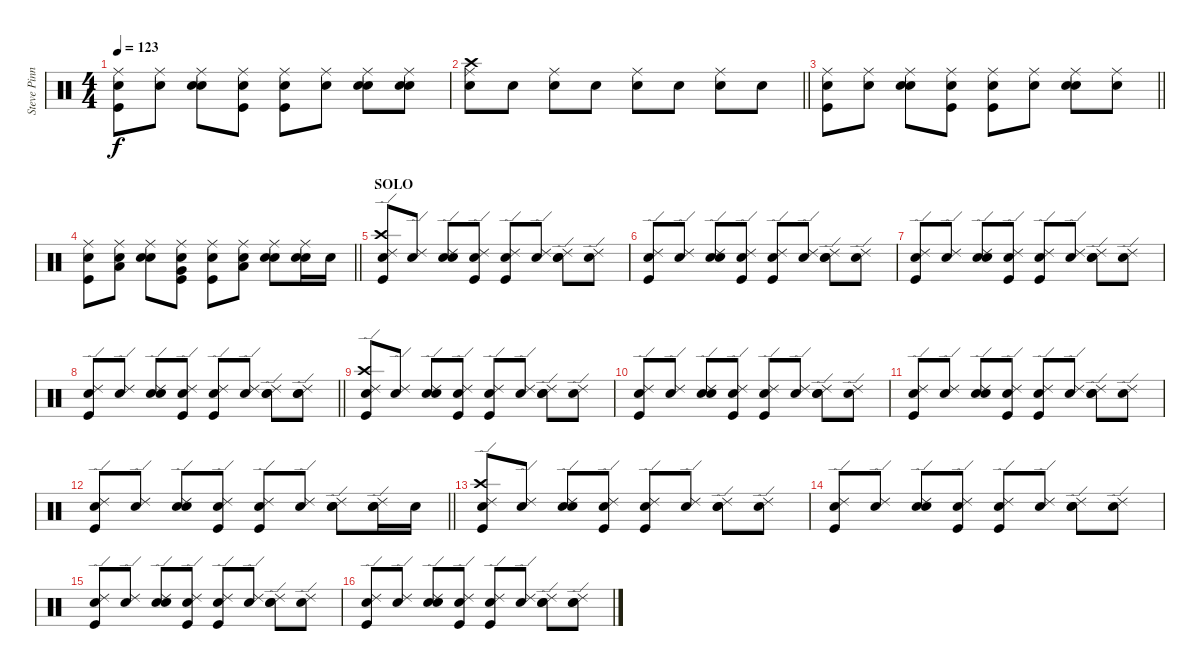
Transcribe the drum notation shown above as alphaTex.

\track ("Steve Pinnell - Drums" "Steve Pinn") {instrument percussion}
\staff {score}
\articulation defaults
\ts (4 4)
\tempo 123
\clef neutral
\ks c
("Kick (hit)" "Ride (middle)" "Snare (hit)").8{dy f} ("Ride (middle)" "Snare (hit)").8 ("Metronome (bell)" "Ride (middle)" "Snare (hit)").8 ("Kick (hit)" "Ride (middle)" "Snare (hit)").8 ("Kick (hit)" "Ride (middle)" "Snare (hit)").8 ("Ride (middle)" "Snare (hit)").8 ("Metronome (bell)" "Ride (middle)" "Snare (hit)").8 ("Metronome (bell)" "Ride (middle)" "Snare (hit)").8 |
\barLineRight lightlight
("Crash high (hit)" "Ride (middle)" "Snare (hit)").8 "Snare (hit)".8 ("Ride (middle)" "Snare (hit)").8 "Snare (hit)".8 ("Ride (middle)" "Snare (hit)").8 "Snare (hit)".8 ("Ride (middle)" "Snare (hit)").8 "Snare (hit)".8 |
\barLineRight lightlight
("Kick (hit)" "Ride (middle)" "Snare (hit)").8 ("Ride (middle)" "Snare (hit)").8 ("Metronome (bell)" "Ride (middle)" "Snare (hit)").8 ("Kick (hit)" "Ride (middle)" "Snare (hit)").8 ("Kick (hit)" "Ride (middle)" "Snare (hit)").8 ("Ride (middle)" "Snare (hit)").8 ("Metronome (bell)" "Ride (middle)" "Snare (hit)").8 ("Ride (middle)" "Snare (hit)").8 |
\barLineRight lightlight
("Kick (hit)" "Ride (middle)" "Snare (hit)").8 ("Low Floor Tom (hit)" "Ride (middle)" "Snare (hit)").8 ("Metronome (bell)" "Ride (middle)" "Snare (hit)").8 ("Very Low Tom (hit)" "Kick (hit)" "Ride (middle)" "Snare (hit)").8 ("Kick (hit)" "Ride (middle)" "Snare (hit)").8 ("Low Tom (hit)" "Ride (middle)" "Snare (hit)").8 ("Metronome (bell)" "Ride (middle)" "Snare (hit)").8 ("Metronome (bell)" "Ride (middle)" "Snare (hit)").16 "Metronome (bell)".16 |
\section ("" "SOLO")
("Crash high (hit)" "Kick (hit)" "Ride (edge) 2" "Snare (hit)").8 ("Ride (edge) 2" "Snare (hit)").8 ("Metronome (bell)" "Ride (edge) 2" "Snare (hit)").8 ("Kick (hit)" "Ride (edge) 2" "Snare (hit)").8 ("Kick (hit)" "Ride (edge) 2" "Snare (hit)").8 ("Ride (edge) 2" "Snare (hit)").8 ("Metronome (bell)" "Ride (edge) 2" "Snare (hit)").8 ("Ride (edge) 2" "Snare (hit)").8 |
("Kick (hit)" "Ride (edge) 2" "Snare (hit)").8 ("Ride (edge) 2" "Snare (hit)").8 ("Metronome (bell)" "Ride (edge) 2" "Snare (hit)").8 ("Kick (hit)" "Ride (edge) 2" "Snare (hit)").8 ("Kick (hit)" "Ride (edge) 2" "Snare (hit)").8 ("Ride (edge) 2" "Snare (hit)").8 ("Metronome (bell)" "Ride (edge) 2" "Snare (hit)").8 ("Ride (edge) 2" "Snare (hit)").8 |
("Kick (hit)" "Ride (edge) 2" "Snare (hit)").8 ("Ride (edge) 2" "Snare (hit)").8 ("Metronome (bell)" "Ride (edge) 2" "Snare (hit)").8 ("Kick (hit)" "Ride (edge) 2" "Snare (hit)").8 ("Kick (hit)" "Ride (edge) 2" "Snare (hit)").8 ("Ride (edge) 2" "Snare (hit)").8 ("Metronome (bell)" "Ride (edge) 2" "Snare (hit)").8 ("Ride (edge) 2" "Snare (hit)").8 |
\barLineRight lightlight
("Kick (hit)" "Ride (edge) 2" "Snare (hit)").8 ("Ride (edge) 2" "Snare (hit)").8 ("Metronome (bell)" "Ride (edge) 2" "Snare (hit)").8 ("Kick (hit)" "Ride (edge) 2" "Snare (hit)").8 ("Kick (hit)" "Ride (edge) 2" "Snare (hit)").8 ("Ride (edge) 2" "Snare (hit)").8 ("Metronome (bell)" "Ride (edge) 2" "Snare (hit)").8 ("Metronome (bell)" "Ride (edge) 2" "Snare (hit)").8 |
("Crash high (hit)" "Kick (hit)" "Ride (edge) 2" "Snare (hit)").8 ("Ride (edge) 2" "Snare (hit)").8 ("Metronome (bell)" "Ride (edge) 2" "Snare (hit)").8 ("Kick (hit)" "Ride (edge) 2" "Snare (hit)").8 ("Kick (hit)" "Ride (edge) 2" "Snare (hit)").8 ("Ride (edge) 2" "Snare (hit)").8 ("Metronome (bell)" "Ride (edge) 2" "Snare (hit)").8 ("Ride (edge) 2" "Snare (hit)").8 |
("Kick (hit)" "Ride (edge) 2" "Snare (hit)").8 ("Ride (edge) 2" "Snare (hit)").8 ("Metronome (bell)" "Ride (edge) 2" "Snare (hit)").8 ("Kick (hit)" "Ride (edge) 2" "Snare (hit)").8 ("Kick (hit)" "Ride (edge) 2" "Snare (hit)").8 ("Ride (edge) 2" "Snare (hit)").8 ("Metronome (bell)" "Ride (edge) 2" "Snare (hit)").8 ("Ride (edge) 2" "Snare (hit)").8 |
("Kick (hit)" "Ride (edge) 2" "Snare (hit)").8 ("Ride (edge) 2" "Snare (hit)").8 ("Metronome (bell)" "Ride (edge) 2" "Snare (hit)").8 ("Kick (hit)" "Ride (edge) 2" "Snare (hit)").8 ("Kick (hit)" "Ride (edge) 2" "Snare (hit)").8 ("Ride (edge) 2" "Snare (hit)").8 ("Metronome (bell)" "Ride (edge) 2" "Snare (hit)").8 ("Ride (edge) 2" "Snare (hit)").8 |
\barLineRight lightlight
("Kick (hit)" "Ride (edge) 2" "Snare (hit)").8 ("Ride (edge) 2" "Snare (hit)").8 ("Metronome (bell)" "Ride (edge) 2" "Snare (hit)").8 ("Kick (hit)" "Ride (edge) 2" "Snare (hit)").8 ("Kick (hit)" "Ride (edge) 2" "Snare (hit)").8 ("Ride (edge) 2" "Snare (hit)").8 ("Metronome (bell)" "Ride (edge) 2" "Snare (hit)").8 ("Metronome (bell)" "Ride (edge) 2" "Snare (hit)").16 "Metronome (bell)".16 |
("Crash high (hit)" "Kick (hit)" "Ride (edge) 2" "Snare (hit)").8 ("Ride (edge) 2" "Snare (hit)").8 ("Metronome (bell)" "Ride (edge) 2" "Snare (hit)").8 ("Kick (hit)" "Ride (edge) 2" "Snare (hit)").8 ("Kick (hit)" "Ride (edge) 2" "Snare (hit)").8 ("Ride (edge) 2" "Snare (hit)").8 ("Metronome (bell)" "Ride (edge) 2" "Snare (hit)").8 ("Ride (edge) 2" "Snare (hit)").8 |
("Kick (hit)" "Ride (edge) 2" "Snare (hit)").8 ("Ride (edge) 2" "Snare (hit)").8 ("Metronome (bell)" "Ride (edge) 2" "Snare (hit)").8 ("Kick (hit)" "Ride (edge) 2" "Snare (hit)").8 ("Kick (hit)" "Ride (edge) 2" "Snare (hit)").8 ("Ride (edge) 2" "Snare (hit)").8 ("Metronome (bell)" "Ride (edge) 2" "Snare (hit)").8 ("Ride (edge) 2" "Snare (hit)").8 |
("Kick (hit)" "Ride (edge) 2" "Snare (hit)").8 ("Ride (edge) 2" "Snare (hit)").8 ("Metronome (bell)" "Ride (edge) 2" "Snare (hit)").8 ("Kick (hit)" "Ride (edge) 2" "Snare (hit)").8 ("Kick (hit)" "Ride (edge) 2" "Snare (hit)").8 ("Ride (edge) 2" "Snare (hit)").8 ("Metronome (bell)" "Ride (edge) 2" "Snare (hit)").8 ("Ride (edge) 2" "Snare (hit)").8 |
("Kick (hit)" "Ride (edge) 2" "Snare (hit)").8 ("Ride (edge) 2" "Snare (hit)").8 ("Metronome (bell)" "Ride (edge) 2" "Snare (hit)").8 ("Kick (hit)" "Ride (edge) 2" "Snare (hit)").8 ("Kick (hit)" "Ride (edge) 2" "Snare (hit)").8 ("Ride (edge) 2" "Snare (hit)").8 ("Metronome (bell)" "Ride (edge) 2" "Snare (hit)").8 ("Metronome (bell)" "Ride (edge) 2" "Snare (hit)").8
